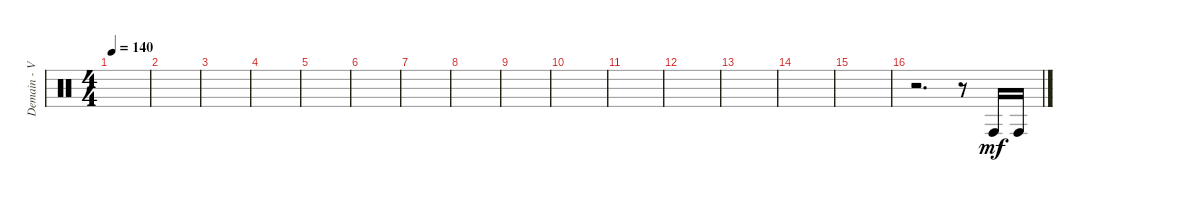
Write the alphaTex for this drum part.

\track ("Demain - Various Perc." "Demain - V") {instrument percussion}
\staff {score}
\articulation defaults
\ts (4 4)
\tempo 140
\clef neutral
\ks c
|
|
|
|
|
|
|
|
|
|
|
|
|
|
|
r.2{d} r.8 "Conga high (hit)".16{dy mf} "Conga high (hit)".16
